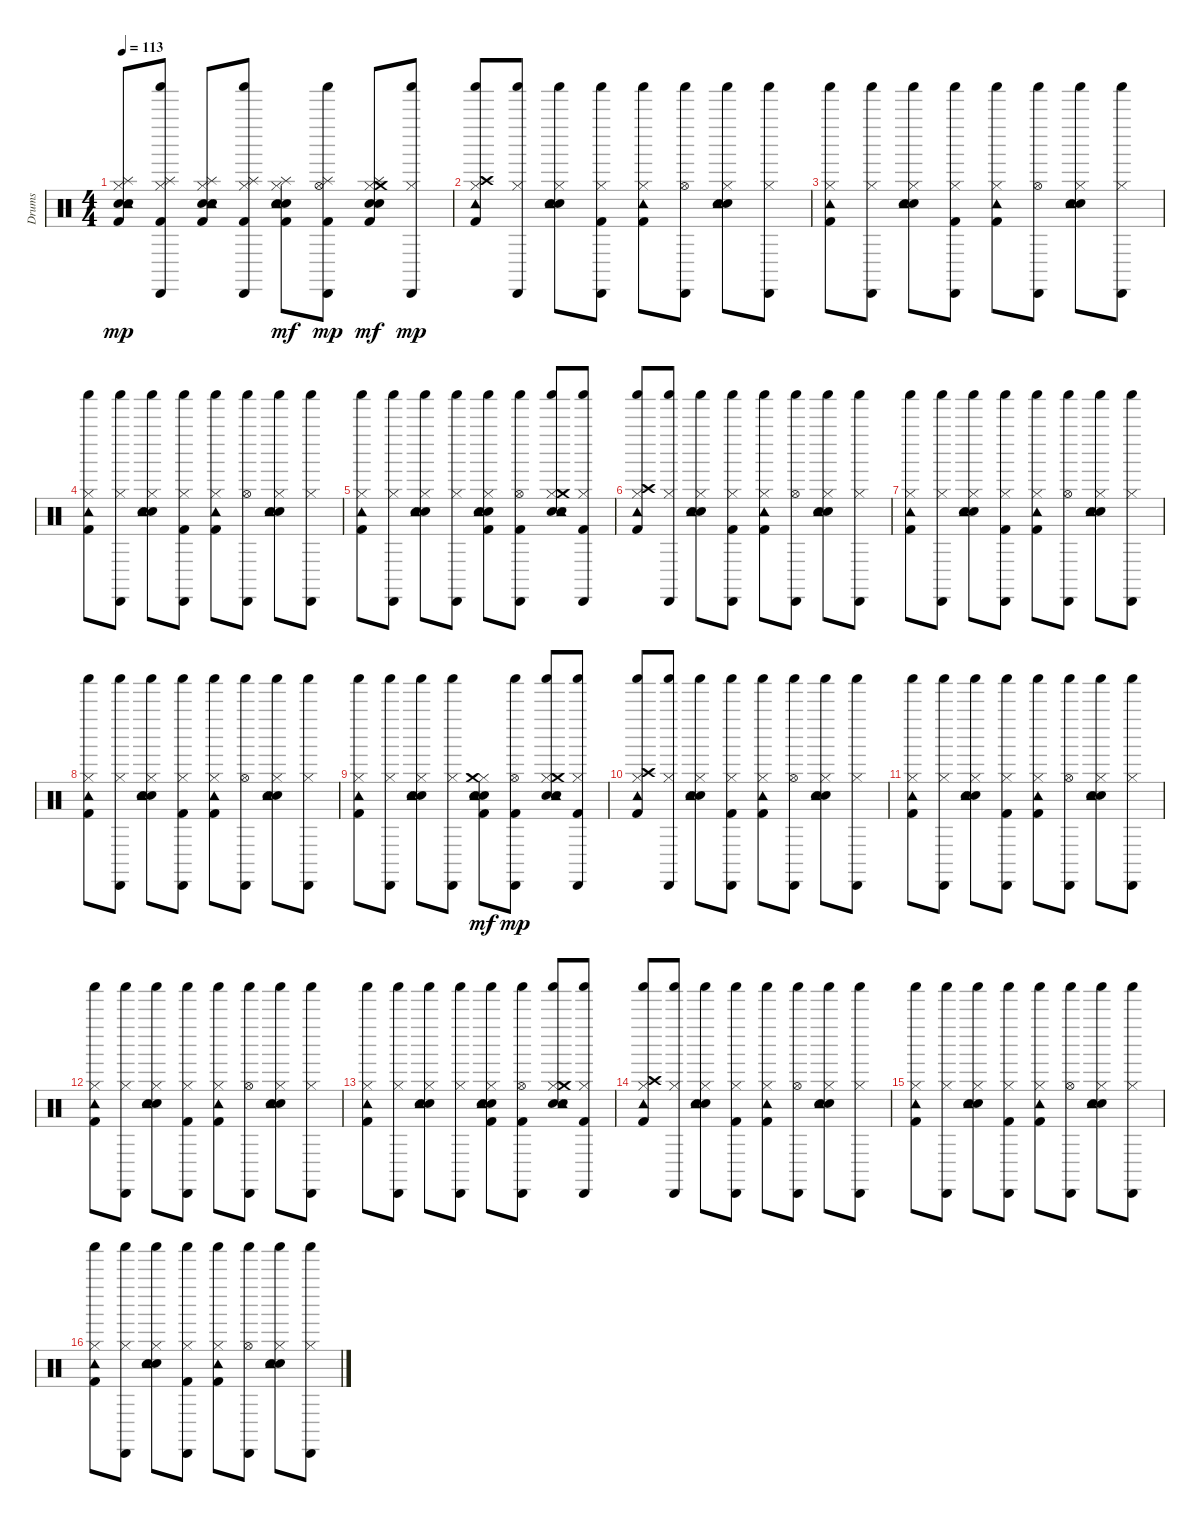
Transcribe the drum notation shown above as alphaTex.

\track ("Drums" "Drums") {instrument percussion}
\staff {score}
\articulation defaults
\ts (4 4)
\tempo 113
\clef neutral
\ks c
("Kick (hit) 2" "Snare (hit) 2" "Hand Clap (hit)" "Hi-Hat (closed)" "Splash (hit)" "Tambourine (hit)").8{dy mp} ("Hi-Hat (closed)" "Splash (hit)" "Shaker (hit)" "Kick (hit) 2" "Cabasa (hit)").8 ("Kick (hit) 2" "Snare (hit) 2" "Hand Clap (hit)" "Hi-Hat (closed)" "Splash (hit)" "Tambourine (hit)").8 ("Hi-Hat (closed)" "Splash (hit)" "Shaker (hit)" "Kick (hit) 2" "Cabasa (hit)").8 ("Kick (hit) 2" "Snare (hit) 2" "Hand Clap (hit)" "Hi-Hat (closed)" "Splash (hit)" "Tambourine (hit)").8{dy mf} ("Hi-Hat (open)" "Splash (hit)" "Shaker (hit)" "Kick (hit) 2" "Cabasa (hit)").8{dy mp} ("Kick (hit) 2" "Hand Clap (hit)" "Snare (hit) 2" "Hi-Hat (closed)" "Splash (hit)" "Crash medium (hit)").8{dy mf} ("Hi-Hat (closed)" "Shaker (hit)" "Cabasa (hit)").8{dy mp} |
("Kick (hit) 2" "Hi-Hat (closed)" "Crash high (hit)" "Tambourine (hit)" "Shaker (hit)").8 ("Hi-Hat (closed)" "Shaker (hit)" "Cabasa (hit)").8 ("Hand Clap (hit)" "Snare (hit) 2" "Hi-Hat (closed)" "Tambourine (hit)" "Shaker (hit)").8 ("Hi-Hat (closed)" "Shaker (hit)" "Kick (hit) 2" "Cabasa (hit)").8 ("Kick (hit) 2" "Hi-Hat (closed)" "Tambourine (hit)" "Shaker (hit)").8 ("Hi-Hat (open)" "Shaker (hit)" "Cabasa (hit)").8 ("Hand Clap (hit)" "Snare (hit) 2" "Hi-Hat (closed)" "Tambourine (hit)" "Shaker (hit)").8 ("Hi-Hat (closed)" "Shaker (hit)" "Cabasa (hit)").8 |
("Kick (hit) 2" "Hi-Hat (closed)" "Tambourine (hit)" "Shaker (hit)").8 ("Hi-Hat (closed)" "Shaker (hit)" "Cabasa (hit)").8 ("Hand Clap (hit)" "Snare (hit) 2" "Hi-Hat (closed)" "Tambourine (hit)" "Shaker (hit)").8 ("Hi-Hat (closed)" "Shaker (hit)" "Kick (hit) 2" "Cabasa (hit)").8 ("Kick (hit) 2" "Hi-Hat (closed)" "Tambourine (hit)" "Shaker (hit)").8 ("Hi-Hat (open)" "Shaker (hit)" "Cabasa (hit)").8 ("Hand Clap (hit)" "Snare (hit) 2" "Hi-Hat (closed)" "Tambourine (hit)" "Shaker (hit)").8 ("Hi-Hat (closed)" "Shaker (hit)" "Cabasa (hit)").8 |
("Kick (hit) 2" "Hi-Hat (closed)" "Tambourine (hit)" "Shaker (hit)").8 ("Hi-Hat (closed)" "Shaker (hit)" "Cabasa (hit)").8 ("Hand Clap (hit)" "Snare (hit) 2" "Hi-Hat (closed)" "Tambourine (hit)" "Shaker (hit)").8 ("Hi-Hat (closed)" "Shaker (hit)" "Kick (hit) 2" "Cabasa (hit)").8 ("Kick (hit) 2" "Hi-Hat (closed)" "Tambourine (hit)" "Shaker (hit)").8 ("Hi-Hat (open)" "Shaker (hit)" "Cabasa (hit)").8 ("Hand Clap (hit)" "Snare (hit) 2" "Hi-Hat (closed)" "Tambourine (hit)" "Shaker (hit)").8 ("Hi-Hat (closed)" "Shaker (hit)" "Cabasa (hit)").8 |
("Kick (hit) 2" "Hi-Hat (closed)" "Tambourine (hit)" "Shaker (hit)").8 ("Hi-Hat (closed)" "Shaker (hit)" "Cabasa (hit)").8 ("Hand Clap (hit)" "Snare (hit) 2" "Hi-Hat (closed)" "Tambourine (hit)" "Shaker (hit)").8 ("Hi-Hat (closed)" "Shaker (hit)" "Cabasa (hit)").8 ("Kick (hit) 2" "Hand Clap (hit)" "Snare (hit) 2" "Hi-Hat (closed)" "Tambourine (hit)" "Shaker (hit)").8 ("Kick (hit) 2" "Hi-Hat (open)" "Shaker (hit)" "Cabasa (hit)").8 ("Hand Clap (hit)" "Snare (hit) 2" "Hi-Hat (closed)" "Crash medium (hit)" "Tambourine (hit)" "Shaker (hit)").8 ("Kick (hit) 2" "Hi-Hat (closed)" "Shaker (hit)" "Cabasa (hit)").8 |
("Kick (hit) 2" "Hi-Hat (closed)" "Crash high (hit)" "Tambourine (hit)" "Shaker (hit)").8 ("Hi-Hat (closed)" "Shaker (hit)" "Cabasa (hit)").8 ("Hand Clap (hit)" "Snare (hit) 2" "Hi-Hat (closed)" "Tambourine (hit)" "Shaker (hit)").8 ("Hi-Hat (closed)" "Shaker (hit)" "Kick (hit) 2" "Cabasa (hit)").8 ("Kick (hit) 2" "Hi-Hat (closed)" "Tambourine (hit)" "Shaker (hit)").8 ("Hi-Hat (open)" "Shaker (hit)" "Cabasa (hit)").8 ("Hand Clap (hit)" "Snare (hit) 2" "Hi-Hat (closed)" "Tambourine (hit)" "Shaker (hit)").8 ("Hi-Hat (closed)" "Shaker (hit)" "Cabasa (hit)").8 |
("Kick (hit) 2" "Hi-Hat (closed)" "Tambourine (hit)" "Shaker (hit)").8 ("Hi-Hat (closed)" "Shaker (hit)" "Cabasa (hit)").8 ("Hand Clap (hit)" "Snare (hit) 2" "Hi-Hat (closed)" "Tambourine (hit)" "Shaker (hit)").8 ("Hi-Hat (closed)" "Shaker (hit)" "Kick (hit) 2" "Cabasa (hit)").8 ("Kick (hit) 2" "Hi-Hat (closed)" "Tambourine (hit)" "Shaker (hit)").8 ("Hi-Hat (open)" "Shaker (hit)" "Cabasa (hit)").8 ("Hand Clap (hit)" "Snare (hit) 2" "Hi-Hat (closed)" "Tambourine (hit)" "Shaker (hit)").8 ("Hi-Hat (closed)" "Shaker (hit)" "Cabasa (hit)").8 |
("Kick (hit) 2" "Hi-Hat (closed)" "Tambourine (hit)" "Shaker (hit)").8 ("Hi-Hat (closed)" "Shaker (hit)" "Cabasa (hit)").8 ("Hand Clap (hit)" "Snare (hit) 2" "Hi-Hat (closed)" "Tambourine (hit)" "Shaker (hit)").8 ("Hi-Hat (closed)" "Shaker (hit)" "Kick (hit) 2" "Cabasa (hit)").8 ("Kick (hit) 2" "Hi-Hat (closed)" "Tambourine (hit)" "Shaker (hit)").8 ("Hi-Hat (open)" "Shaker (hit)" "Cabasa (hit)").8 ("Hand Clap (hit)" "Snare (hit) 2" "Hi-Hat (closed)" "Tambourine (hit)" "Shaker (hit)").8 ("Hi-Hat (closed)" "Shaker (hit)" "Cabasa (hit)").8 |
("Kick (hit) 2" "Hi-Hat (closed)" "Tambourine (hit)" "Shaker (hit)").8 ("Hi-Hat (closed)" "Shaker (hit)" "Cabasa (hit)").8 ("Hand Clap (hit)" "Snare (hit) 2" "Hi-Hat (closed)" "Tambourine (hit)" "Shaker (hit)").8 ("Hi-Hat (closed)" "Shaker (hit)" "Cabasa (hit)").8 ("Kick (hit) 2" "Hand Clap (hit)" "Snare (hit) 2" "Hi-Hat (closed)" "Crash medium (hit)" "Tambourine (hit)").8{dy mf} ("Kick (hit) 2" "Hi-Hat (open)" "Shaker (hit)" "Cabasa (hit)").8{dy mp} ("Hand Clap (hit)" "Snare (hit) 2" "Hi-Hat (closed)" "Crash medium (hit)" "Tambourine (hit)" "Shaker (hit)").8 ("Kick (hit) 2" "Hi-Hat (closed)" "Shaker (hit)" "Cabasa (hit)").8 |
("Kick (hit) 2" "Hi-Hat (closed)" "Crash high (hit)" "Tambourine (hit)" "Shaker (hit)").8 ("Hi-Hat (closed)" "Shaker (hit)" "Cabasa (hit)").8 ("Hand Clap (hit)" "Snare (hit) 2" "Hi-Hat (closed)" "Tambourine (hit)" "Shaker (hit)").8 ("Hi-Hat (closed)" "Shaker (hit)" "Kick (hit) 2" "Cabasa (hit)").8 ("Kick (hit) 2" "Hi-Hat (closed)" "Tambourine (hit)" "Shaker (hit)").8 ("Hi-Hat (open)" "Shaker (hit)" "Cabasa (hit)").8 ("Hand Clap (hit)" "Snare (hit) 2" "Hi-Hat (closed)" "Tambourine (hit)" "Shaker (hit)").8 ("Hi-Hat (closed)" "Shaker (hit)" "Cabasa (hit)").8 |
("Kick (hit) 2" "Hi-Hat (closed)" "Tambourine (hit)" "Shaker (hit)").8 ("Hi-Hat (closed)" "Shaker (hit)" "Cabasa (hit)").8 ("Hand Clap (hit)" "Snare (hit) 2" "Hi-Hat (closed)" "Tambourine (hit)" "Shaker (hit)").8 ("Hi-Hat (closed)" "Shaker (hit)" "Kick (hit) 2" "Cabasa (hit)").8 ("Kick (hit) 2" "Hi-Hat (closed)" "Tambourine (hit)" "Shaker (hit)").8 ("Hi-Hat (open)" "Shaker (hit)" "Cabasa (hit)").8 ("Hand Clap (hit)" "Snare (hit) 2" "Hi-Hat (closed)" "Tambourine (hit)" "Shaker (hit)").8 ("Hi-Hat (closed)" "Shaker (hit)" "Cabasa (hit)").8 |
("Kick (hit) 2" "Hi-Hat (closed)" "Tambourine (hit)" "Shaker (hit)").8 ("Hi-Hat (closed)" "Shaker (hit)" "Cabasa (hit)").8 ("Hand Clap (hit)" "Snare (hit) 2" "Hi-Hat (closed)" "Tambourine (hit)" "Shaker (hit)").8 ("Hi-Hat (closed)" "Shaker (hit)" "Kick (hit) 2" "Cabasa (hit)").8 ("Kick (hit) 2" "Hi-Hat (closed)" "Tambourine (hit)" "Shaker (hit)").8 ("Hi-Hat (open)" "Shaker (hit)" "Cabasa (hit)").8 ("Hand Clap (hit)" "Snare (hit) 2" "Hi-Hat (closed)" "Tambourine (hit)" "Shaker (hit)").8 ("Hi-Hat (closed)" "Shaker (hit)" "Cabasa (hit)").8 |
("Kick (hit) 2" "Hi-Hat (closed)" "Tambourine (hit)" "Shaker (hit)").8 ("Hi-Hat (closed)" "Shaker (hit)" "Cabasa (hit)").8 ("Hand Clap (hit)" "Snare (hit) 2" "Hi-Hat (closed)" "Tambourine (hit)" "Shaker (hit)").8 ("Hi-Hat (closed)" "Shaker (hit)" "Cabasa (hit)").8 ("Kick (hit) 2" "Hand Clap (hit)" "Snare (hit) 2" "Hi-Hat (closed)" "Tambourine (hit)" "Shaker (hit)").8 ("Kick (hit) 2" "Hi-Hat (open)" "Shaker (hit)" "Cabasa (hit)").8 ("Hand Clap (hit)" "Snare (hit) 2" "Hi-Hat (closed)" "Crash medium (hit)" "Tambourine (hit)" "Shaker (hit)").8 ("Kick (hit) 2" "Hi-Hat (closed)" "Shaker (hit)" "Cabasa (hit)").8 |
("Kick (hit) 2" "Hi-Hat (closed)" "Crash high (hit)" "Tambourine (hit)" "Shaker (hit)").8 ("Hi-Hat (closed)" "Shaker (hit)" "Cabasa (hit)").8 ("Hand Clap (hit)" "Snare (hit) 2" "Hi-Hat (closed)" "Tambourine (hit)" "Shaker (hit)").8 ("Hi-Hat (closed)" "Shaker (hit)" "Kick (hit) 2" "Cabasa (hit)").8 ("Kick (hit) 2" "Hi-Hat (closed)" "Tambourine (hit)" "Shaker (hit)").8 ("Hi-Hat (open)" "Shaker (hit)" "Cabasa (hit)").8 ("Hand Clap (hit)" "Snare (hit) 2" "Hi-Hat (closed)" "Tambourine (hit)" "Shaker (hit)").8 ("Hi-Hat (closed)" "Shaker (hit)" "Cabasa (hit)").8 |
("Kick (hit) 2" "Hi-Hat (closed)" "Tambourine (hit)" "Shaker (hit)").8 ("Hi-Hat (closed)" "Shaker (hit)" "Cabasa (hit)").8 ("Hand Clap (hit)" "Snare (hit) 2" "Hi-Hat (closed)" "Tambourine (hit)" "Shaker (hit)").8 ("Hi-Hat (closed)" "Shaker (hit)" "Kick (hit) 2" "Cabasa (hit)").8 ("Kick (hit) 2" "Hi-Hat (closed)" "Tambourine (hit)" "Shaker (hit)").8 ("Hi-Hat (open)" "Shaker (hit)" "Cabasa (hit)").8 ("Hand Clap (hit)" "Snare (hit) 2" "Hi-Hat (closed)" "Tambourine (hit)" "Shaker (hit)").8 ("Hi-Hat (closed)" "Shaker (hit)" "Cabasa (hit)").8 |
("Kick (hit) 2" "Hi-Hat (closed)" "Tambourine (hit)" "Shaker (hit)").8 ("Hi-Hat (closed)" "Shaker (hit)" "Cabasa (hit)").8 ("Hand Clap (hit)" "Snare (hit) 2" "Hi-Hat (closed)" "Tambourine (hit)" "Shaker (hit)").8 ("Hi-Hat (closed)" "Shaker (hit)" "Kick (hit) 2" "Cabasa (hit)").8 ("Kick (hit) 2" "Hi-Hat (closed)" "Tambourine (hit)" "Shaker (hit)").8 ("Hi-Hat (open)" "Shaker (hit)" "Cabasa (hit)").8 ("Hand Clap (hit)" "Snare (hit) 2" "Hi-Hat (closed)" "Tambourine (hit)" "Shaker (hit)").8 ("Hi-Hat (closed)" "Shaker (hit)" "Cabasa (hit)").8
